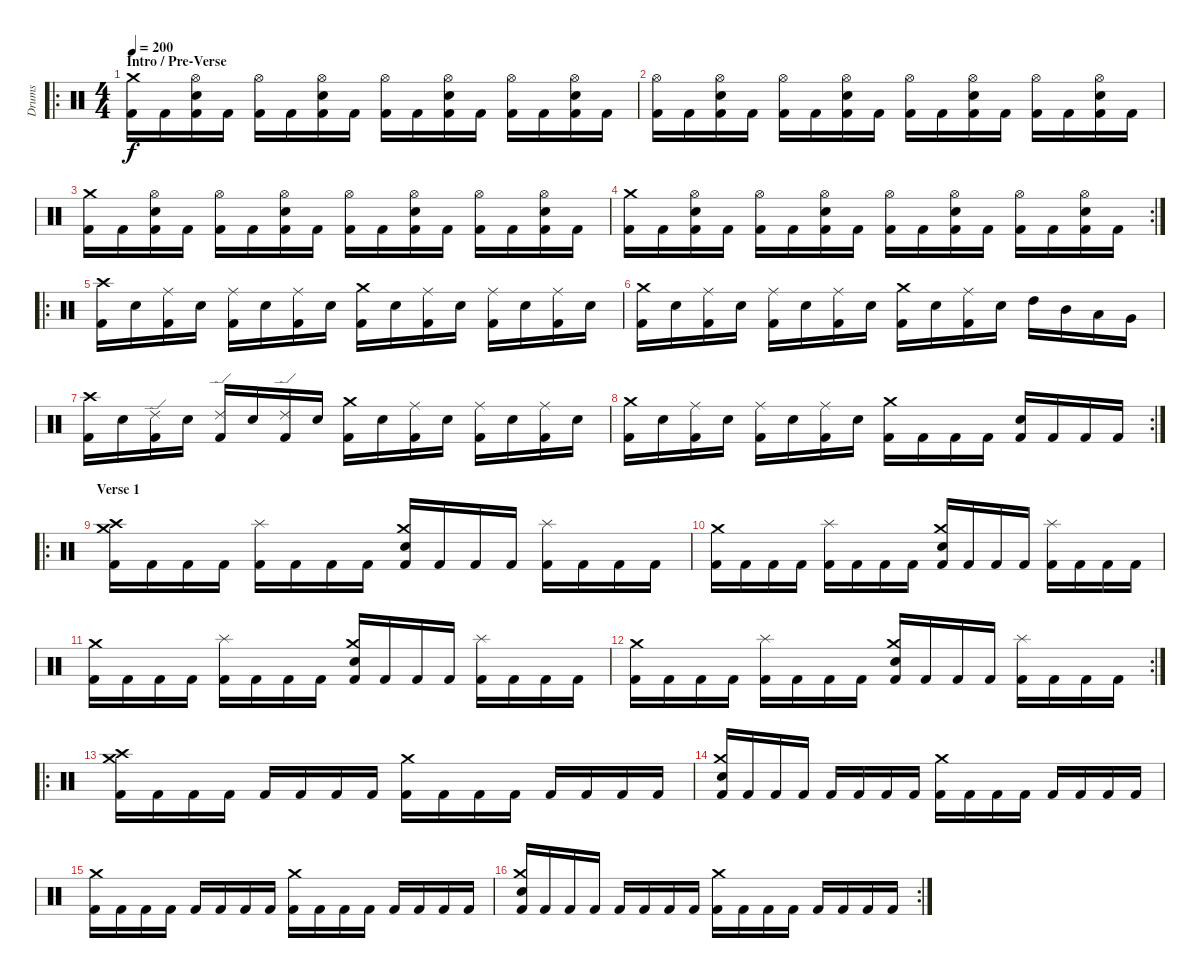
\track ("Drums" "Drums") {instrument percussion}
\staff {score}
\articulation defaults
\ro
\ts (4 4)
\section ("" "Intro / Pre-Verse")
\tempo 200
\clef neutral
\ks c
("Kick (hit) 2" "Crash medium (hit)").16{dy f} "Kick (hit) 2".16 ("Kick (hit) 2" "Electric Snare (hit)" "Hi-Hat (open)").16 "Kick (hit) 2".16 ("Kick (hit) 2" "Hi-Hat (open)").16 "Kick (hit) 2".16 ("Kick (hit) 2" "Electric Snare (hit)" "Hi-Hat (open)").16 "Kick (hit) 2".16 ("Kick (hit) 2" "Hi-Hat (open)").16 "Kick (hit) 2".16 ("Kick (hit) 2" "Electric Snare (hit)" "Hi-Hat (open)").16 "Kick (hit) 2".16 ("Kick (hit) 2" "Hi-Hat (open)").16 "Kick (hit) 2".16 ("Kick (hit) 2" "Electric Snare (hit)" "Hi-Hat (open)").16 "Kick (hit) 2".16 |
("Kick (hit) 2" "Hi-Hat (open)").16 "Kick (hit) 2".16 ("Kick (hit) 2" "Electric Snare (hit)" "Hi-Hat (open)").16 "Kick (hit) 2".16 ("Kick (hit) 2" "Hi-Hat (open)").16 "Kick (hit) 2".16 ("Kick (hit) 2" "Electric Snare (hit)" "Hi-Hat (open)").16 "Kick (hit) 2".16 ("Kick (hit) 2" "Hi-Hat (open)").16 "Kick (hit) 2".16 ("Kick (hit) 2" "Electric Snare (hit)" "Hi-Hat (open)").16 "Kick (hit) 2".16 ("Kick (hit) 2" "Hi-Hat (open)").16 "Kick (hit) 2".16 ("Kick (hit) 2" "Electric Snare (hit)" "Hi-Hat (open)").16 "Kick (hit) 2".16 |
("Kick (hit) 2" "Crash medium (hit)").16 "Kick (hit) 2".16 ("Kick (hit) 2" "Electric Snare (hit)" "Hi-Hat (open)").16 "Kick (hit) 2".16 ("Kick (hit) 2" "Hi-Hat (open)").16 "Kick (hit) 2".16 ("Kick (hit) 2" "Electric Snare (hit)" "Hi-Hat (open)").16 "Kick (hit) 2".16 ("Kick (hit) 2" "Hi-Hat (open)").16 "Kick (hit) 2".16 ("Kick (hit) 2" "Electric Snare (hit)" "Hi-Hat (open)").16 "Kick (hit) 2".16 ("Kick (hit) 2" "Hi-Hat (open)").16 "Kick (hit) 2".16 ("Kick (hit) 2" "Electric Snare (hit)" "Hi-Hat (open)").16 "Kick (hit) 2".16 |
\rc 2
("Kick (hit) 2" "Crash medium (hit)").16 "Kick (hit) 2".16 ("Kick (hit) 2" "Electric Snare (hit)" "Hi-Hat (open)").16 "Kick (hit) 2".16 ("Kick (hit) 2" "Hi-Hat (open)").16 "Kick (hit) 2".16 ("Kick (hit) 2" "Electric Snare (hit)" "Hi-Hat (open)").16 "Kick (hit) 2".16 ("Kick (hit) 2" "Hi-Hat (open)").16 "Kick (hit) 2".16 ("Kick (hit) 2" "Electric Snare (hit)" "Hi-Hat (open)").16 "Kick (hit) 2".16 ("Kick (hit) 2" "Hi-Hat (open)").16 "Kick (hit) 2".16 ("Kick (hit) 2" "Electric Snare (hit)" "Hi-Hat (open)").16 "Kick (hit) 2".16 |
\ro
("Kick (hit) 2" "Crash high (hit)").16 "Electric Snare (hit)".16 ("Kick (hit) 2" "Ride (middle)").16 "Electric Snare (hit)".16 ("Kick (hit) 2" "Ride (middle)").16 "Electric Snare (hit)".16 ("Kick (hit) 2" "Ride (middle)").16 "Electric Snare (hit)".16 ("Kick (hit) 2" "Crash medium (hit)").16 "Electric Snare (hit)".16 ("Kick (hit) 2" "Ride (middle)").16 "Electric Snare (hit)".16 ("Kick (hit) 2" "Ride (middle)").16 "Electric Snare (hit)".16 ("Kick (hit) 2" "Ride (middle)").16 "Electric Snare (hit)".16 |
("Kick (hit) 2" "Crash medium (hit)").16 "Electric Snare (hit)".16 ("Kick (hit) 2" "Ride (middle)").16 "Electric Snare (hit)".16 ("Kick (hit) 2" "Ride (middle)").16 "Electric Snare (hit)".16 ("Kick (hit) 2" "Ride (middle)").16 "Electric Snare (hit)".16 ("Kick (hit) 2" "Crash medium (hit)").16 "Electric Snare (hit)".16 ("Kick (hit) 2" "Ride (middle)").16 "Electric Snare (hit)".16 "High Tom (hit)".16 "Mid Tom (hit)".16 "Low Tom (hit)".16 "Very Low Tom (hit)".16 |
("Kick (hit) 2" "Crash high (hit)").16 "Electric Snare (hit)".16 ("Kick (hit) 2" "Ride (edge) 2").16 "Electric Snare (hit)".16 ("Kick (hit) 2" "Ride (edge) 2").16 "Electric Snare (hit)".16 ("Kick (hit) 2" "Ride (edge) 2").16 "Electric Snare (hit)".16 ("Kick (hit) 2" "Crash medium (hit)").16 "Electric Snare (hit)".16 ("Kick (hit) 2" "Ride (middle)").16 "Electric Snare (hit)".16 ("Kick (hit) 2" "Ride (middle)").16 "Electric Snare (hit)".16 ("Kick (hit) 2" "Ride (middle)").16 "Electric Snare (hit)".16 |
\rc 2
("Kick (hit) 2" "Crash medium (hit)").16 "Electric Snare (hit)".16 ("Kick (hit) 2" "Ride (middle)").16 "Electric Snare (hit)".16 ("Kick (hit) 2" "Ride (middle)").16 "Electric Snare (hit)".16 ("Kick (hit) 2" "Ride (middle)").16 "Electric Snare (hit)".16 ("Kick (hit) 2" "Crash medium (hit)").16 "Kick (hit) 2".16 "Kick (hit) 2".16 "Kick (hit) 2".16 ("Kick (hit) 2" "Electric Snare (hit)").16 "Kick (hit) 2".16 "Kick (hit) 2".16 "Kick (hit) 2".16 |
\ro
\section ("" "Verse 1")
("Kick (hit) 2" "Crash medium (hit)" "Crash high (hit)").16 "Kick (hit) 2".16 "Kick (hit) 2".16 "Kick (hit) 2".16 ("Kick (hit) 2" "Splash (hit)").16 "Kick (hit) 2".16 "Kick (hit) 2".16 "Kick (hit) 2".16 ("Kick (hit) 2" "Electric Snare (hit)" "Crash medium (hit)").16 "Kick (hit) 2".16 "Kick (hit) 2".16 "Kick (hit) 2".16 ("Kick (hit) 2" "Splash (hit)").16 "Kick (hit) 2".16 "Kick (hit) 2".16 "Kick (hit) 2".16 |
("Kick (hit) 2" "Crash medium (hit)").16 "Kick (hit) 2".16 "Kick (hit) 2".16 "Kick (hit) 2".16 ("Kick (hit) 2" "Splash (hit)").16 "Kick (hit) 2".16 "Kick (hit) 2".16 "Kick (hit) 2".16 ("Kick (hit) 2" "Electric Snare (hit)" "Crash medium (hit)").16 "Kick (hit) 2".16 "Kick (hit) 2".16 "Kick (hit) 2".16 ("Kick (hit) 2" "Splash (hit)").16 "Kick (hit) 2".16 "Kick (hit) 2".16 "Kick (hit) 2".16 |
("Kick (hit) 2" "Crash medium (hit)").16 "Kick (hit) 2".16 "Kick (hit) 2".16 "Kick (hit) 2".16 ("Kick (hit) 2" "Splash (hit)").16 "Kick (hit) 2".16 "Kick (hit) 2".16 "Kick (hit) 2".16 ("Kick (hit) 2" "Electric Snare (hit)" "Crash medium (hit)").16 "Kick (hit) 2".16 "Kick (hit) 2".16 "Kick (hit) 2".16 ("Kick (hit) 2" "Splash (hit)").16 "Kick (hit) 2".16 "Kick (hit) 2".16 "Kick (hit) 2".16 |
\rc 2
("Kick (hit) 2" "Crash medium (hit)").16 "Kick (hit) 2".16 "Kick (hit) 2".16 "Kick (hit) 2".16 ("Kick (hit) 2" "Splash (hit)").16 "Kick (hit) 2".16 "Kick (hit) 2".16 "Kick (hit) 2".16 ("Kick (hit) 2" "Electric Snare (hit)" "Crash medium (hit)").16 "Kick (hit) 2".16 "Kick (hit) 2".16 "Kick (hit) 2".16 ("Kick (hit) 2" "Splash (hit)").16 "Kick (hit) 2".16 "Kick (hit) 2".16 "Kick (hit) 2".16 |
\ro
("Kick (hit) 2" "Crash medium (hit)" "Crash high (hit)").16 "Kick (hit) 2".16 "Kick (hit) 2".16 "Kick (hit) 2".16 "Kick (hit) 2".16 "Kick (hit) 2".16 "Kick (hit) 2".16 "Kick (hit) 2".16 ("Kick (hit) 2" "Crash medium (hit)").16 "Kick (hit) 2".16 "Kick (hit) 2".16 "Kick (hit) 2".16 "Kick (hit) 2".16 "Kick (hit) 2".16 "Kick (hit) 2".16 "Kick (hit) 2".16 |
("Kick (hit) 2" "Electric Snare (hit)" "Crash medium (hit)").16 "Kick (hit) 2".16 "Kick (hit) 2".16 "Kick (hit) 2".16 "Kick (hit) 2".16 "Kick (hit) 2".16 "Kick (hit) 2".16 "Kick (hit) 2".16 ("Kick (hit) 2" "Crash medium (hit)").16 "Kick (hit) 2".16 "Kick (hit) 2".16 "Kick (hit) 2".16 "Kick (hit) 2".16 "Kick (hit) 2".16 "Kick (hit) 2".16 "Kick (hit) 2".16 |
("Kick (hit) 2" "Crash medium (hit)").16 "Kick (hit) 2".16 "Kick (hit) 2".16 "Kick (hit) 2".16 "Kick (hit) 2".16 "Kick (hit) 2".16 "Kick (hit) 2".16 "Kick (hit) 2".16 ("Kick (hit) 2" "Crash medium (hit)").16 "Kick (hit) 2".16 "Kick (hit) 2".16 "Kick (hit) 2".16 "Kick (hit) 2".16 "Kick (hit) 2".16 "Kick (hit) 2".16 "Kick (hit) 2".16 |
\rc 2
("Kick (hit) 2" "Electric Snare (hit)" "Crash medium (hit)").16 "Kick (hit) 2".16 "Kick (hit) 2".16 "Kick (hit) 2".16 "Kick (hit) 2".16 "Kick (hit) 2".16 "Kick (hit) 2".16 "Kick (hit) 2".16 ("Kick (hit) 2" "Crash medium (hit)").16 "Kick (hit) 2".16 "Kick (hit) 2".16 "Kick (hit) 2".16 "Kick (hit) 2".16 "Kick (hit) 2".16 "Kick (hit) 2".16 "Kick (hit) 2".16
